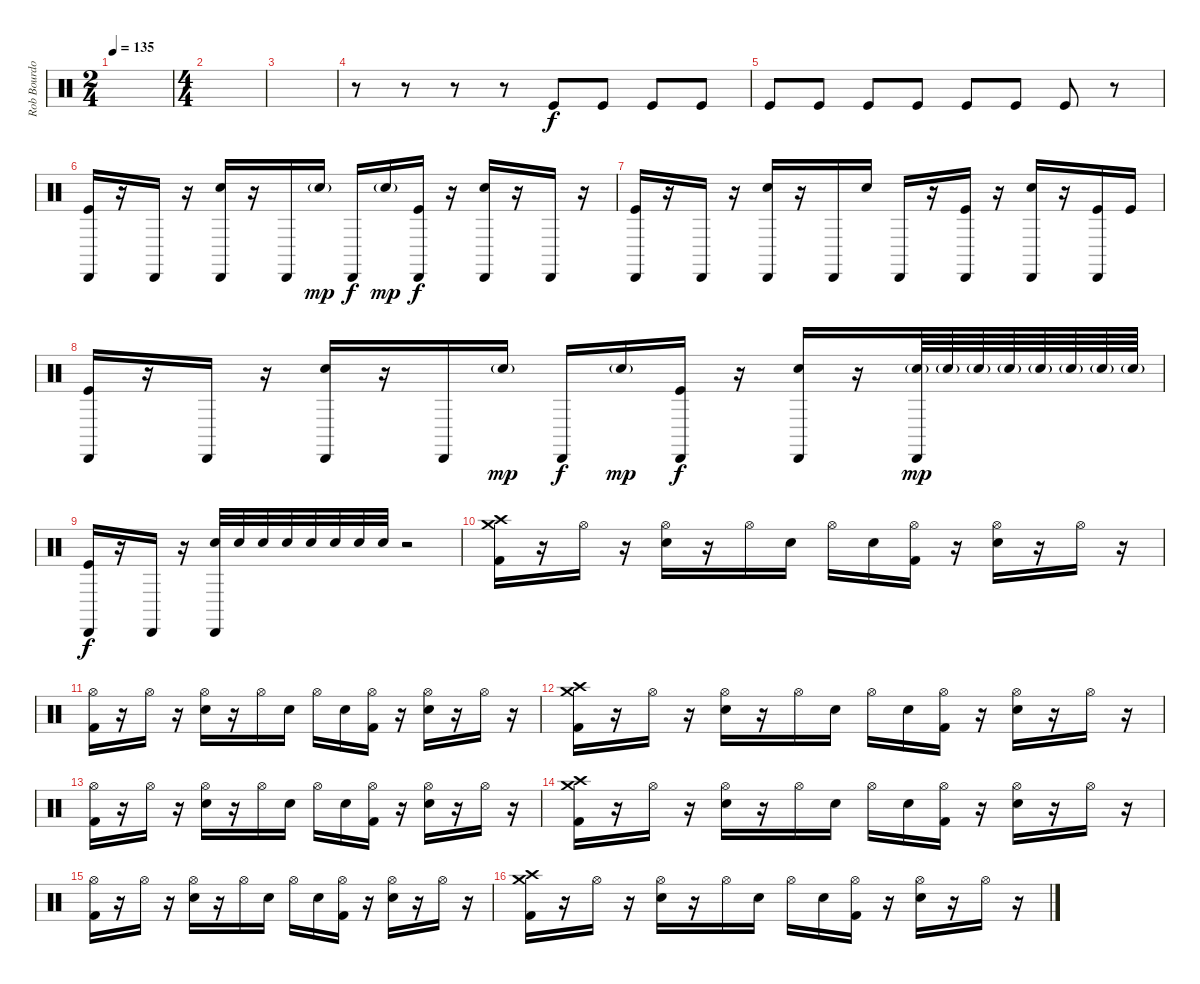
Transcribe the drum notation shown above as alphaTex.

\track ("Rob Bourdon (Drums)" "Rob Bourdo") {instrument percussion}
\staff {score}
\articulation defaults
\ts (2 4)
\tempo 135
\clef neutral
\ks c
|
\ts (4 4)
|
|
r.8 r.8 r.8 r.8 "Kick (hit)".8{volume 8} "Kick (hit)".8 "Kick (hit)".8 "Kick (hit)".8 |
"Kick (hit)".8{volume 10} "Kick (hit)".8 "Kick (hit)".8 "Kick (hit)".8 "Kick (hit)".8{volume 13} "Kick (hit)".8 "Kick (hit)".8 r.8 |
("Cabasa (hit)" "Kick (hit)").16 r.16 "Cabasa (hit)".16 r.16 ("Cabasa (hit)" "Hand Clap (hit)").16 r.16 "Cabasa (hit)".16 "Hand Clap (hit)"{g}.16{dy mp} "Cabasa (hit)".16{dy f} "Hand Clap (hit)"{g}.16{dy mp} ("Cabasa (hit)" "Kick (hit)").16{dy f} r.16 ("Cabasa (hit)" "Hand Clap (hit)").16 r.16 "Cabasa (hit)".16 r.16 |
("Cabasa (hit)" "Kick (hit)").16 r.16 "Cabasa (hit)".16 r.16 ("Cabasa (hit)" "Hand Clap (hit)").16 r.16 "Cabasa (hit)".16 "Hand Clap (hit)".16 "Cabasa (hit)".16 r.16 ("Cabasa (hit)" "Kick (hit)").16 r.16 ("Cabasa (hit)" "Hand Clap (hit)").16 r.16 ("Cabasa (hit)" "Kick (hit)").16 "Kick (hit)".16 |
("Cabasa (hit)" "Kick (hit)").16 r.16 "Cabasa (hit)".16 r.16 ("Cabasa (hit)" "Hand Clap (hit)").16 r.16 "Cabasa (hit)".16 "Hand Clap (hit)"{g}.16{dy mp} "Cabasa (hit)".16{dy f} "Hand Clap (hit)"{g}.16{dy mp} ("Cabasa (hit)" "Kick (hit)").16{dy f} r.16 ("Cabasa (hit)" "Hand Clap (hit)").16 r.16 ("Cabasa (hit)" "Hand Clap (hit)"{g}).64{dy mp} "Hand Clap (hit)"{g}.64 "Hand Clap (hit)"{g}.64 "Hand Clap (hit)"{g}.64 "Hand Clap (hit)"{g}.64 "Hand Clap (hit)"{g}.64 "Hand Clap (hit)"{g}.64 "Hand Clap (hit)"{g}.64 |
("Cabasa (hit)" "Kick (hit)").16{dy f} r.16 "Cabasa (hit)".16 r.16 ("Cabasa (hit)" "Hand Clap (hit)").32 "Hand Clap (hit)".32 "Hand Clap (hit)".32 "Hand Clap (hit)".32 "Hand Clap (hit)".32 "Hand Clap (hit)".32 "Hand Clap (hit)".32 "Hand Clap (hit)".32 r.2 |
("Crash high (hit)" "Crash medium (hit)" "Kick (hit) 2").16 r.16 "Hi-Hat (open)".16 r.16 ("Hi-Hat (open)" "Electric Snare (hit)").16 r.16 "Hi-Hat (open)".16 "Electric Snare (hit)".16 "Hi-Hat (open)".16 "Electric Snare (hit)".16 ("Hi-Hat (open)" "Kick (hit) 2").16 r.16 ("Hi-Hat (open)" "Electric Snare (hit)").16 r.16 "Hi-Hat (open)".16 r.16 |
("Hi-Hat (open)" "Kick (hit) 2").16 r.16 "Hi-Hat (open)".16 r.16 ("Hi-Hat (open)" "Electric Snare (hit)").16 r.16 "Hi-Hat (open)".16 "Electric Snare (hit)".16 "Hi-Hat (open)".16 "Electric Snare (hit)".16 ("Hi-Hat (open)" "Kick (hit) 2").16 r.16 ("Hi-Hat (open)" "Electric Snare (hit)").16 r.16 "Hi-Hat (open)".16 r.16 |
("Crash high (hit)" "Crash medium (hit)" "Kick (hit) 2").16 r.16 "Hi-Hat (open)".16 r.16 ("Hi-Hat (open)" "Electric Snare (hit)").16 r.16 "Hi-Hat (open)".16 "Electric Snare (hit)".16 "Hi-Hat (open)".16 "Electric Snare (hit)".16 ("Hi-Hat (open)" "Kick (hit) 2").16 r.16 ("Hi-Hat (open)" "Electric Snare (hit)").16 r.16 "Hi-Hat (open)".16 r.16 |
("Hi-Hat (open)" "Kick (hit) 2").16 r.16 "Hi-Hat (open)".16 r.16 ("Hi-Hat (open)" "Electric Snare (hit)").16 r.16 "Hi-Hat (open)".16 "Electric Snare (hit)".16 "Hi-Hat (open)".16 "Electric Snare (hit)".16 ("Hi-Hat (open)" "Kick (hit) 2").16 r.16 ("Hi-Hat (open)" "Electric Snare (hit)").16 r.16 "Hi-Hat (open)".16 r.16 |
("Crash high (hit)" "Crash medium (hit)" "Kick (hit) 2").16 r.16 "Hi-Hat (open)".16 r.16 ("Hi-Hat (open)" "Electric Snare (hit)").16 r.16 "Hi-Hat (open)".16 "Electric Snare (hit)".16 "Hi-Hat (open)".16 "Electric Snare (hit)".16 ("Hi-Hat (open)" "Kick (hit) 2").16 r.16 ("Hi-Hat (open)" "Electric Snare (hit)").16 r.16 "Hi-Hat (open)".16 r.16 |
("Hi-Hat (open)" "Kick (hit) 2").16 r.16 "Hi-Hat (open)".16 r.16 ("Hi-Hat (open)" "Electric Snare (hit)").16 r.16 "Hi-Hat (open)".16 "Electric Snare (hit)".16 "Hi-Hat (open)".16 "Electric Snare (hit)".16 ("Hi-Hat (open)" "Kick (hit) 2").16 r.16 ("Hi-Hat (open)" "Electric Snare (hit)").16 r.16 "Hi-Hat (open)".16 r.16 |
("Crash high (hit)" "Crash medium (hit)" "Kick (hit) 2").16 r.16 "Hi-Hat (open)".16 r.16 ("Hi-Hat (open)" "Electric Snare (hit)").16 r.16 "Hi-Hat (open)".16 "Electric Snare (hit)".16 "Hi-Hat (open)".16 "Electric Snare (hit)".16 ("Hi-Hat (open)" "Kick (hit) 2").16 r.16 ("Hi-Hat (open)" "Electric Snare (hit)").16 r.16 "Hi-Hat (open)".16 r.16
